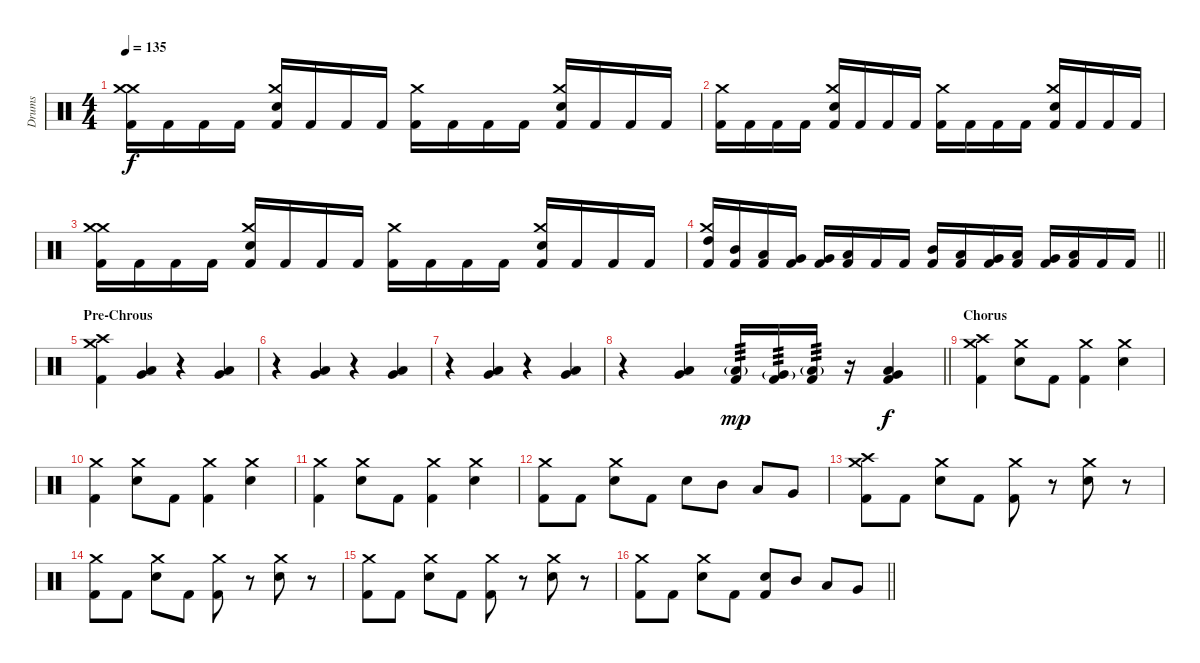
\track ("Drums" "Drums") {instrument percussion}
\staff {score}
\articulation defaults
\ts (4 4)
\tempo 135
\clef neutral
\ks c
("Kick (hit) 2" "Crash medium (hit)" "Crash medium (hit)").16{dy f} "Kick (hit) 2".16 "Kick (hit) 2".16 "Kick (hit) 2".16 ("Kick (hit) 2" "Snare (hit) 2" "Crash medium (hit)").16 "Kick (hit) 2".16 "Kick (hit) 2".16 "Kick (hit) 2".16 ("Kick (hit) 2" "Crash medium (hit)").16 "Kick (hit) 2".16 "Kick (hit) 2".16 "Kick (hit) 2".16 ("Kick (hit) 2" "Snare (hit) 2" "Crash medium (hit)").16 "Kick (hit) 2".16 "Kick (hit) 2".16 "Kick (hit) 2".16 |
("Kick (hit) 2" "Crash medium (hit)").16 "Kick (hit) 2".16 "Kick (hit) 2".16 "Kick (hit) 2".16 ("Kick (hit) 2" "Snare (hit) 2" "Crash medium (hit)").16 "Kick (hit) 2".16 "Kick (hit) 2".16 "Kick (hit) 2".16 ("Kick (hit) 2" "Crash medium (hit)").16 "Kick (hit) 2".16 "Kick (hit) 2".16 "Kick (hit) 2".16 ("Kick (hit) 2" "Snare (hit) 2" "Crash medium (hit)").16 "Kick (hit) 2".16 "Kick (hit) 2".16 "Kick (hit) 2".16 |
("Kick (hit) 2" "Crash medium (hit)" "Crash medium (hit)").16 "Kick (hit) 2".16 "Kick (hit) 2".16 "Kick (hit) 2".16 ("Kick (hit) 2" "Snare (hit) 2" "Crash medium (hit)").16 "Kick (hit) 2".16 "Kick (hit) 2".16 "Kick (hit) 2".16 ("Kick (hit) 2" "Crash medium (hit)").16 "Kick (hit) 2".16 "Kick (hit) 2".16 "Kick (hit) 2".16 ("Kick (hit) 2" "Snare (hit) 2" "Crash medium (hit)").16 "Kick (hit) 2".16 "Kick (hit) 2".16 "Kick (hit) 2".16 |
\barLineRight lightlight
("Kick (hit) 2" "High Tom (hit)" "Crash medium (hit)").16 ("Kick (hit) 2" "Mid Tom (hit)").16 ("Kick (hit) 2" "Low Tom (hit)").16 ("Kick (hit) 2" "Very Low Tom (hit)").16 ("Kick (hit) 2" "Very Low Tom (hit)").16 ("Kick (hit) 2" "Low Floor Tom (hit)").16 "Kick (hit) 2".16 "Kick (hit) 2".16 ("Kick (hit) 2" "Mid Tom (hit)").16 ("Kick (hit) 2" "Low Tom (hit)").16 ("Kick (hit) 2" "Very Low Tom (hit)").16 ("Kick (hit) 2" "Low Floor Tom (hit)").16 ("Kick (hit) 2" "Very Low Tom (hit)").16 ("Kick (hit) 2" "Low Floor Tom (hit)").16 "Kick (hit) 2".16 "Kick (hit) 2".16 |
\section ("" "Pre-Chrous")
("Kick (hit) 2" "Crash medium (hit)" "Crash high (hit)").4 ("Low Tom (hit)" "Very Low Tom (hit)").4 r.4 ("Low Tom (hit)" "Very Low Tom (hit)").4 |
r.4 ("Low Tom (hit)" "Very Low Tom (hit)").4 r.4 ("Low Tom (hit)" "Very Low Tom (hit)").4 |
r.4 ("Low Tom (hit)" "Very Low Tom (hit)").4 r.4 ("Low Tom (hit)" "Very Low Tom (hit)").4 |
\barLineRight lightlight
r.4 ("Low Tom (hit)" "Very Low Tom (hit)").4 ("Kick (hit) 2" "Low Tom (hit)"{g}).16{tp 3 dy mp} ("Kick (hit) 2" "Very Low Tom (hit)"{g}).16{tp 3} ("Kick (hit) 2" "Low Floor Tom (hit)"{g}).16{tp 3} r.16 ("Kick (hit) 2" "Low Tom (hit)" "Very Low Tom (hit)").4{dy f} |
\section ("" "Chorus")
("Kick (hit) 2" "Crash medium (hit)" "Crash high (hit)").4 ("Snare (hit) 2" "Crash medium (hit)").8 "Kick (hit) 2".8 ("Kick (hit) 2" "Crash medium (hit)").4 ("Snare (hit) 2" "Crash medium (hit)").4 |
("Kick (hit) 2" "Crash medium (hit)").4 ("Snare (hit) 2" "Crash medium (hit)").8 "Kick (hit) 2".8 ("Kick (hit) 2" "Crash medium (hit)").4 ("Snare (hit) 2" "Crash medium (hit)").4 |
("Kick (hit) 2" "Crash medium (hit)").4 ("Snare (hit) 2" "Crash medium (hit)").8 "Kick (hit) 2".8 ("Kick (hit) 2" "Crash medium (hit)").4 ("Snare (hit) 2" "Crash medium (hit)").4 |
("Kick (hit) 2" "Crash medium (hit)").8 "Kick (hit) 2".8 ("Snare (hit) 2" "Crash medium (hit)").8 "Kick (hit) 2".8 "Snare (hit) 2".8 "Mid Tom (hit)".8 "Low Tom (hit)".8 "Very Low Tom (hit)".8 |
("Kick (hit) 2" "Crash medium (hit)" "Crash high (hit)").8 "Kick (hit) 2".8 ("Snare (hit) 2" "Crash medium (hit)").8 "Kick (hit) 2".8 ("Kick (hit) 2" "Crash medium (hit)").8 r.8 ("Snare (hit) 2" "Crash medium (hit)").8 r.8 |
("Kick (hit) 2" "Crash medium (hit)").8 "Kick (hit) 2".8 ("Snare (hit) 2" "Crash medium (hit)").8 "Kick (hit) 2".8 ("Kick (hit) 2" "Crash medium (hit)").8 r.8 ("Snare (hit) 2" "Crash medium (hit)").8 r.8 |
("Kick (hit) 2" "Crash medium (hit)").8 "Kick (hit) 2".8 ("Snare (hit) 2" "Crash medium (hit)").8 "Kick (hit) 2".8 ("Kick (hit) 2" "Crash medium (hit)").8 r.8 ("Snare (hit) 2" "Crash medium (hit)").8 r.8 |
\barLineRight lightlight
("Kick (hit) 2" "Crash medium (hit)").8 "Kick (hit) 2".8 ("Snare (hit) 2" "Crash medium (hit)").8 "Kick (hit) 2".8 ("Kick (hit) 2" "Snare (hit) 2").8 "Mid Tom (hit)".8 "Low Tom (hit)".8 "Very Low Tom (hit)".8
